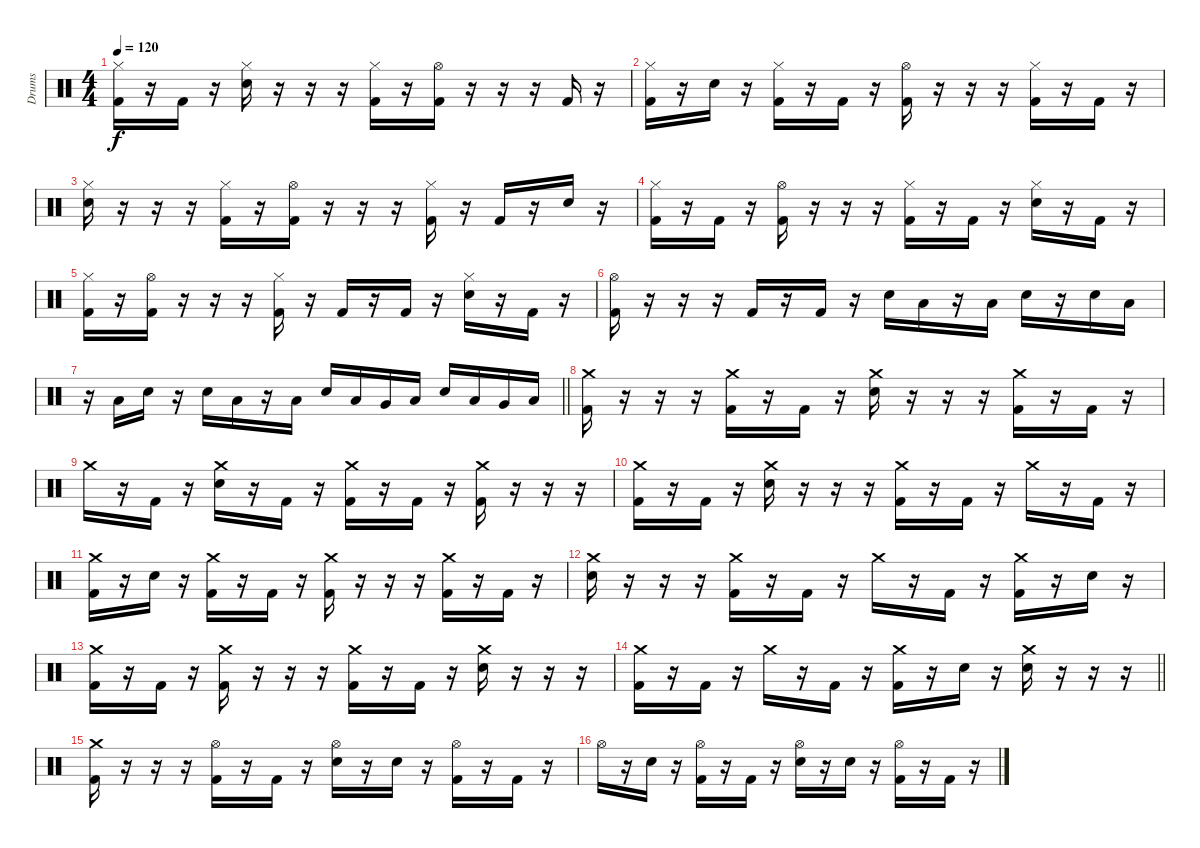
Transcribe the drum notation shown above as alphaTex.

\track ("Drums" "Drums") {instrument percussion}
\staff {score}
\articulation defaults
\ts (4 4)
\tempo 120
\clef neutral
\ks c
("Hi-Hat (closed)" "Kick (hit) 2").16{dy f} r.16 "Kick (hit) 2".16 r.16 ("Hi-Hat (closed)" "Electric Snare (hit)").16 r.16 r.16 r.16 ("Hi-Hat (closed)" "Kick (hit) 2").16 r.16 ("Hi-Hat (open)" "Kick (hit) 2").16 r.16 r.16 r.16 "Kick (hit) 2".16 r.16 |
("Hi-Hat (closed)" "Kick (hit) 2").16 r.16 "Electric Snare (hit)".16 r.16 ("Hi-Hat (closed)" "Kick (hit) 2").16 r.16 "Kick (hit) 2".16 r.16 ("Hi-Hat (open)" "Kick (hit) 2").16 r.16 r.16 r.16 ("Hi-Hat (closed)" "Kick (hit) 2").16 r.16 "Kick (hit) 2".16 r.16 |
("Hi-Hat (closed)" "Electric Snare (hit)").16 r.16 r.16 r.16 ("Hi-Hat (closed)" "Kick (hit) 2").16 r.16 ("Hi-Hat (open)" "Kick (hit) 2").16 r.16 r.16 r.16 ("Hi-Hat (closed)" "Kick (hit) 2").16 r.16 "Kick (hit) 2".16 r.16 "Electric Snare (hit)".16 r.16 |
("Hi-Hat (closed)" "Kick (hit) 2").16 r.16 "Kick (hit) 2".16 r.16 ("Hi-Hat (open)" "Kick (hit) 2").16 r.16 r.16 r.16 ("Hi-Hat (closed)" "Kick (hit) 2").16 r.16 "Kick (hit) 2".16 r.16 ("Hi-Hat (closed)" "Electric Snare (hit)").16 r.16 "Kick (hit) 2".16 r.16 |
("Hi-Hat (closed)" "Kick (hit) 2").16 r.16 ("Hi-Hat (open)" "Kick (hit) 2").16 r.16 r.16 r.16 ("Hi-Hat (closed)" "Kick (hit) 2").16 r.16 "Kick (hit) 2".16 r.16 "Kick (hit) 2".16 r.16 ("Hi-Hat (closed)" "Electric Snare (hit)").16 r.16 "Kick (hit) 2".16 r.16 |
("Hi-Hat (open)" "Kick (hit) 2").16 r.16 r.16 r.16 "Kick (hit) 2".16 r.16 "Kick (hit) 2".16 r.16 "Electric Snare (hit)".16 "Low Tom (hit)".16 r.16 "Low Tom (hit)".16 "Electric Snare (hit)".16 r.16 "Electric Snare (hit)".16 "Low Tom (hit)".16 |
\barLineRight lightlight
r.16 "Low Tom (hit)".16 "Electric Snare (hit)".16 r.16 "Electric Snare (hit)".16 "Low Tom (hit)".16 r.16 "Low Tom (hit)".16 "Electric Snare (hit)".16 "Low Tom (hit)".16 "Very Low Tom (hit)".16 "Low Floor Tom (hit)".16 "Electric Snare (hit)".16 "Low Tom (hit)".16 "Very Low Tom (hit)".16 "Low Floor Tom (hit)".16 |
\section ("" "")
("Crash medium (hit)" "Kick (hit) 2").16 r.16 r.16 r.16 ("Crash medium (hit)" "Kick (hit) 2").16 r.16 "Kick (hit) 2".16 r.16 ("Crash medium (hit)" "Electric Snare (hit)").16 r.16 r.16 r.16 ("Crash medium (hit)" "Kick (hit) 2").16 r.16 "Kick (hit) 2".16 r.16 |
"Crash medium (hit)".16 r.16 "Kick (hit) 2".16 r.16 ("Crash medium (hit)" "Electric Snare (hit)").16 r.16 "Kick (hit) 2".16 r.16 ("Crash medium (hit)" "Kick (hit) 2").16 r.16 "Kick (hit) 2".16 r.16 ("Crash medium (hit)" "Kick (hit) 2").16 r.16 r.16 r.16 |
("Crash medium (hit)" "Kick (hit) 2").16 r.16 "Kick (hit) 2".16 r.16 ("Crash medium (hit)" "Electric Snare (hit)").16 r.16 r.16 r.16 ("Crash medium (hit)" "Kick (hit) 2").16 r.16 "Kick (hit) 2".16 r.16 "Crash medium (hit)".16 r.16 "Kick (hit) 2".16 r.16 |
("Crash medium (hit)" "Kick (hit) 2").16 r.16 "Electric Snare (hit)".16 r.16 ("Crash medium (hit)" "Kick (hit) 2").16 r.16 "Kick (hit) 2".16 r.16 ("Crash medium (hit)" "Kick (hit) 2").16 r.16 r.16 r.16 ("Crash medium (hit)" "Kick (hit) 2").16 r.16 "Kick (hit) 2".16 r.16 |
("Crash medium (hit)" "Electric Snare (hit)").16 r.16 r.16 r.16 ("Crash medium (hit)" "Kick (hit) 2").16 r.16 "Kick (hit) 2".16 r.16 "Crash medium (hit)".16 r.16 "Kick (hit) 2".16 r.16 ("Crash medium (hit)" "Kick (hit) 2").16 r.16 "Electric Snare (hit)".16 r.16 |
("Crash medium (hit)" "Kick (hit) 2").16 r.16 "Kick (hit) 2".16 r.16 ("Crash medium (hit)" "Kick (hit) 2").16 r.16 r.16 r.16 ("Crash medium (hit)" "Kick (hit) 2").16 r.16 "Kick (hit) 2".16 r.16 ("Crash medium (hit)" "Electric Snare (hit)").16 r.16 r.16 r.16 |
\barLineRight lightlight
("Crash medium (hit)" "Kick (hit) 2").16 r.16 "Kick (hit) 2".16 r.16 "Crash medium (hit)".16 r.16 "Kick (hit) 2".16 r.16 ("Crash medium (hit)" "Kick (hit) 2").16 r.16 "Electric Snare (hit)".16 r.16 ("Crash medium (hit)" "Electric Snare (hit)").16 r.16 r.16 r.16 |
\section ("" "")
("Crash medium (hit)" "Kick (hit) 2").16 r.16 r.16 r.16 ("Hi-Hat (open)" "Kick (hit) 2").16 r.16 "Kick (hit) 2".16 r.16 ("Hi-Hat (open)" "Electric Snare (hit)").16 r.16 "Electric Snare (hit)".16 r.16 ("Hi-Hat (open)" "Kick (hit) 2").16 r.16 "Kick (hit) 2".16 r.16 |
"Hi-Hat (open)".16 r.16 "Electric Snare (hit)".16 r.16 ("Hi-Hat (open)" "Kick (hit) 2").16 r.16 "Kick (hit) 2".16 r.16 ("Hi-Hat (open)" "Electric Snare (hit)").16 r.16 "Electric Snare (hit)".16 r.16 ("Hi-Hat (open)" "Kick (hit) 2").16 r.16 "Kick (hit) 2".16 r.16
